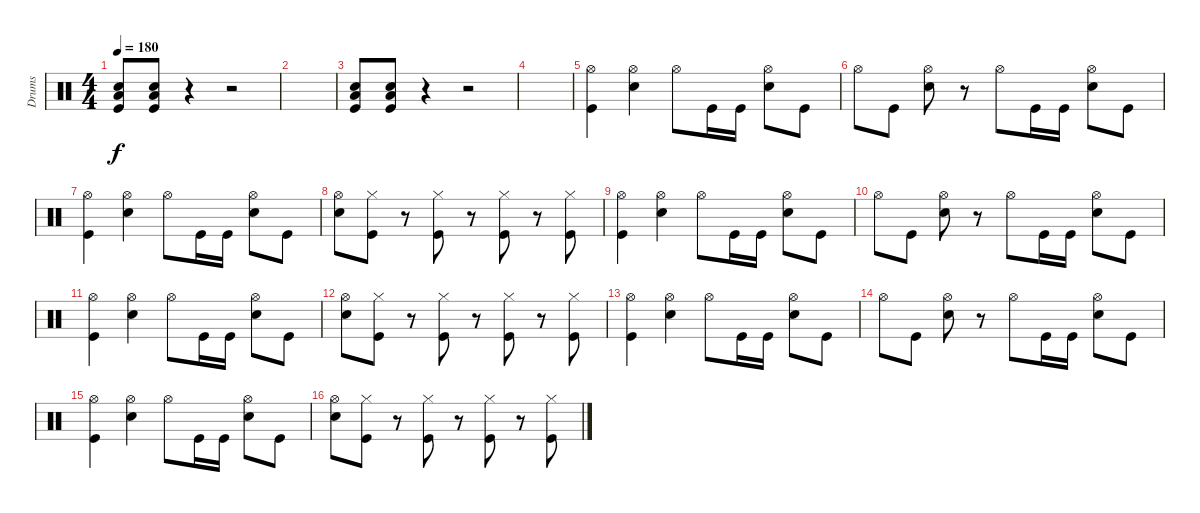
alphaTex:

\track ("Drums" "Drums") {instrument percussion}
\staff {score}
\articulation defaults
\ts (4 4)
\tempo 180
\clef neutral
\ks c
("Low Floor Tom (hit)" "Snare (hit) 2" "Kick (hit)").8{dy f} ("Low Floor Tom (hit)" "Snare (hit) 2" "Kick (hit)").8 r.4 r.2 |
|
("Low Floor Tom (hit)" "Snare (hit) 2" "Kick (hit)").8 ("Low Floor Tom (hit)" "Snare (hit) 2" "Kick (hit)").8 r.4 r.2 |
|
("Hi-Hat (open)" "Kick (hit)").4 ("Hi-Hat (open)" "Snare (hit) 2").4 "Hi-Hat (open)".8 "Kick (hit)".16 "Kick (hit)".16 ("Hi-Hat (open)" "Snare (hit) 2").8 "Kick (hit)".8 |
"Hi-Hat (open)".8 "Kick (hit)".8 ("Hi-Hat (open)" "Snare (hit) 2").8 r.8 "Hi-Hat (open)".8 "Kick (hit)".16 "Kick (hit)".16 ("Hi-Hat (open)" "Snare (hit) 2").8 "Kick (hit)".8 |
("Hi-Hat (open)" "Kick (hit)").4 ("Hi-Hat (open)" "Snare (hit) 2").4 "Hi-Hat (open)".8 "Kick (hit)".16 "Kick (hit)".16 ("Hi-Hat (open)" "Snare (hit) 2").8 "Kick (hit)".8 |
("Hi-Hat (open)" "Snare (hit) 2").8 ("Hi-Hat (closed)" "Kick (hit)").8 r.8 ("Hi-Hat (closed)" "Kick (hit)").8 r.8 ("Hi-Hat (closed)" "Kick (hit)").8 r.8 ("Hi-Hat (closed)" "Kick (hit)").8 |
("Hi-Hat (open)" "Kick (hit)").4 ("Hi-Hat (open)" "Snare (hit) 2").4 "Hi-Hat (open)".8 "Kick (hit)".16 "Kick (hit)".16 ("Hi-Hat (open)" "Snare (hit) 2").8 "Kick (hit)".8 |
"Hi-Hat (open)".8 "Kick (hit)".8 ("Hi-Hat (open)" "Snare (hit) 2").8 r.8 "Hi-Hat (open)".8 "Kick (hit)".16 "Kick (hit)".16 ("Hi-Hat (open)" "Snare (hit) 2").8 "Kick (hit)".8 |
("Hi-Hat (open)" "Kick (hit)").4 ("Hi-Hat (open)" "Snare (hit) 2").4 "Hi-Hat (open)".8 "Kick (hit)".16 "Kick (hit)".16 ("Hi-Hat (open)" "Snare (hit) 2").8 "Kick (hit)".8 |
("Hi-Hat (open)" "Snare (hit) 2").8 ("Hi-Hat (closed)" "Kick (hit)").8 r.8 ("Hi-Hat (closed)" "Kick (hit)").8 r.8 ("Hi-Hat (closed)" "Kick (hit)").8 r.8 ("Hi-Hat (closed)" "Kick (hit)").8 |
("Hi-Hat (open)" "Kick (hit)").4 ("Hi-Hat (open)" "Snare (hit) 2").4 "Hi-Hat (open)".8 "Kick (hit)".16 "Kick (hit)".16 ("Hi-Hat (open)" "Snare (hit) 2").8 "Kick (hit)".8 |
"Hi-Hat (open)".8 "Kick (hit)".8 ("Hi-Hat (open)" "Snare (hit) 2").8 r.8 "Hi-Hat (open)".8 "Kick (hit)".16 "Kick (hit)".16 ("Hi-Hat (open)" "Snare (hit) 2").8 "Kick (hit)".8 |
("Hi-Hat (open)" "Kick (hit)").4 ("Hi-Hat (open)" "Snare (hit) 2").4 "Hi-Hat (open)".8 "Kick (hit)".16 "Kick (hit)".16 ("Hi-Hat (open)" "Snare (hit) 2").8 "Kick (hit)".8 |
("Hi-Hat (open)" "Snare (hit) 2").8 ("Hi-Hat (closed)" "Kick (hit)").8 r.8 ("Hi-Hat (closed)" "Kick (hit)").8 r.8 ("Hi-Hat (closed)" "Kick (hit)").8 r.8 ("Hi-Hat (closed)" "Kick (hit)").8
